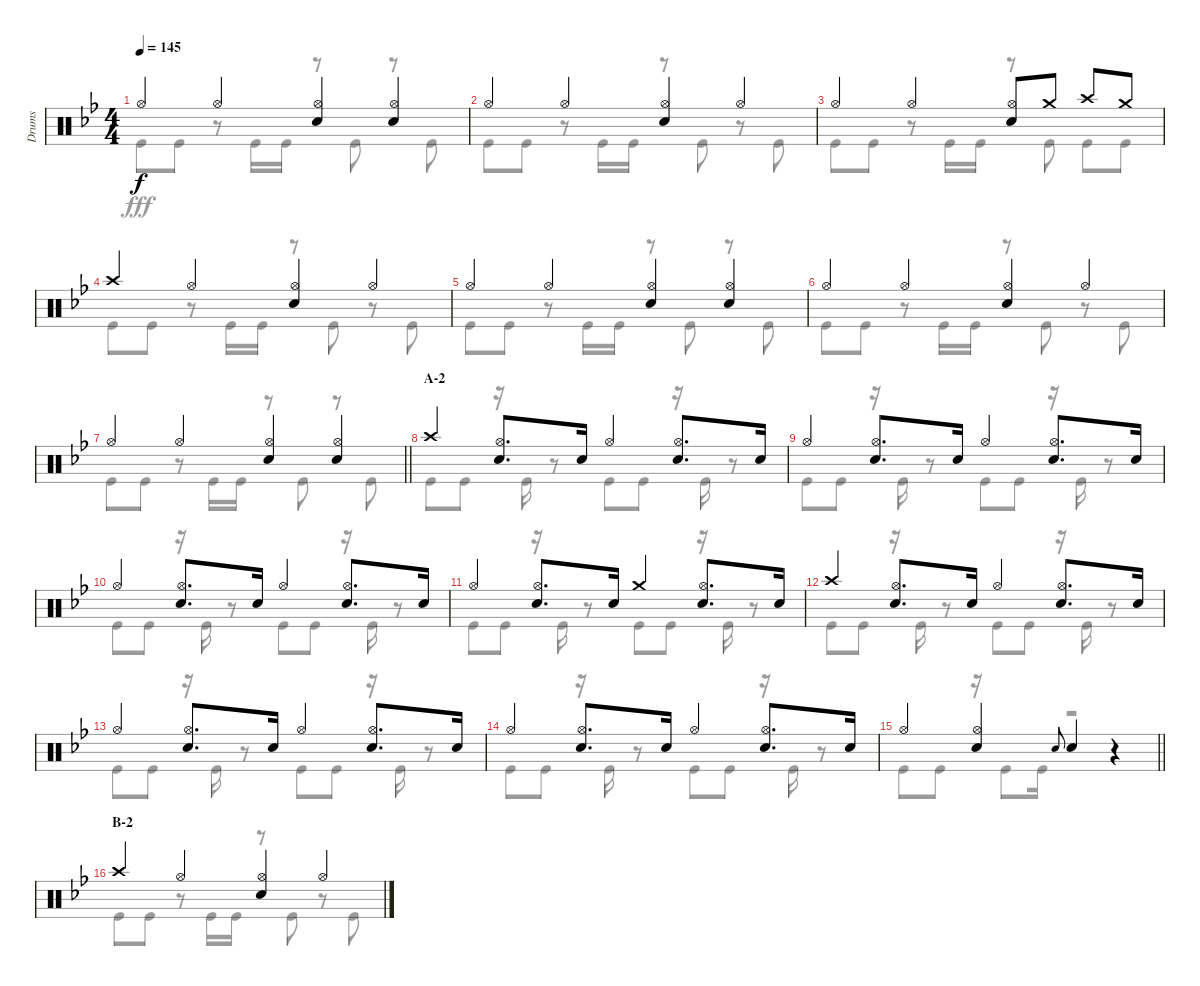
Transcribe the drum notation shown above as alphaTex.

\track ("Drums" "Drums") {instrument percussion}
\staff {score}
\articulation defaults
\voice
\ts (4 4)
\tempo 145
\clef neutral
\ks bb "Hi-Hat (open)".4{dy f} "Hi-Hat (open)".4
("Hi-Hat (open)" "Snare (hit) 2").4 ("Hi-Hat (open)" "Snare (hit) 2").4 |
"Hi-Hat (open)".4 "Hi-Hat (open)".4 ("Hi-Hat (open)" "Snare (hit) 2").4 "Hi-Hat (open)".4 |
"Hi-Hat (open)".4 "Hi-Hat (open)".4 ("Hi-Hat (open)" "Snare (hit) 2").8 "Crash medium (hit)".8 "Crash high (hit)".8 "Crash medium (hit)".8 |
"Crash high (hit)".4 "Hi-Hat (open)".4 ("Hi-Hat (open)" "Snare (hit) 2").4 "Hi-Hat (open)".4 |
"Hi-Hat (open)".4 "Hi-Hat (open)".4 ("Hi-Hat (open)" "Snare (hit) 2").4 ("Hi-Hat (open)" "Snare (hit) 2").4 |
"Hi-Hat (open)".4 "Hi-Hat (open)".4 ("Hi-Hat (open)" "Snare (hit) 2").4 "Hi-Hat (open)".4 |
\barLineRight lightlight "Hi-Hat (open)".4 "Hi-Hat (open)".4
("Hi-Hat (open)" "Snare (hit) 2").4 ("Hi-Hat (open)" "Snare (hit) 2").4 |
\section ("" "A-2")
"Crash high (hit)".4 ("Hi-Hat (open)" "Snare (hit) 2").8{d} "Snare (hit) 2".16 "Hi-Hat (open)".4 ("Hi-Hat (open)" "Snare (hit) 2").8{d} "Snare (hit) 2".16 |
"Hi-Hat (open)".4 ("Hi-Hat (open)" "Snare (hit) 2").8{d} "Snare (hit) 2".16 "Hi-Hat (open)".4 ("Hi-Hat (open)" "Snare (hit) 2").8{d} "Snare (hit) 2".16 |
"Hi-Hat (open)".4 ("Hi-Hat (open)" "Snare (hit) 2").8{d} "Snare (hit) 2".16 "Hi-Hat (open)".4 ("Hi-Hat (open)" "Snare (hit) 2").8{d} "Snare (hit) 2".16 |
"Hi-Hat (open)".4 ("Hi-Hat (open)" "Snare (hit) 2").8{d} "Snare (hit) 2".16 "Crash medium (hit)".4 ("Hi-Hat (open)" "Snare (hit) 2").8{d} "Snare (hit) 2".16 |
"Crash high (hit)".4 ("Hi-Hat (open)" "Snare (hit) 2").8{d} "Snare (hit) 2".16 "Hi-Hat (open)".4 ("Hi-Hat (open)" "Snare (hit) 2").8{d} "Snare (hit) 2".16 |
"Hi-Hat (open)".4 ("Hi-Hat (open)" "Snare (hit) 2").8{d} "Snare (hit) 2".16 "Hi-Hat (open)".4 ("Hi-Hat (open)" "Snare (hit) 2").8{d} "Snare (hit) 2".16 |
"Hi-Hat (open)".4 ("Hi-Hat (open)" "Snare (hit) 2").8{d} "Snare (hit) 2".16 "Hi-Hat (open)".4 ("Hi-Hat (open)" "Snare (hit) 2").8{d} "Snare (hit) 2".16 |
\barLineRight lightlight "Hi-Hat (open)".4
("Hi-Hat (open)" "Snare (hit) 2").4 "Snare (hit) 2".8{gr onbeat} "Snare (hit) 2".4 r.4 |
\section ("" "B-2")
"Crash high (hit)".4 "Hi-Hat (open)".4 ("Hi-Hat (open)" "Snare (hit) 2").4 "Hi-Hat (open)".4
\voice
\clef neutral
\ottava regular
\simile none
\ks bb "Kick (hit)".8{dy fff} "Kick (hit)".8
r.8 "Kick (hit)".16 "Kick (hit)".16 r.8 "Kick (hit)".8 r.8 "Kick (hit)".8 |
"Kick (hit)".8 "Kick (hit)".8 r.8 "Kick (hit)".16 "Kick (hit)".16 r.8 "Kick (hit)".8 r.8 "Kick (hit)".8 |
"Kick (hit)".8 "Kick (hit)".8 r.8 "Kick (hit)".16 "Kick (hit)".16 r.8 "Kick (hit)".8 "Kick (hit)".8 "Kick (hit)".8 |
"Kick (hit)".8 "Kick (hit)".8 r.8 "Kick (hit)".16 "Kick (hit)".16 r.8 "Kick (hit)".8 r.8 "Kick (hit)".8 |
"Kick (hit)".8 "Kick (hit)".8 r.8 "Kick (hit)".16 "Kick (hit)".16 r.8 "Kick (hit)".8 r.8 "Kick (hit)".8 |
"Kick (hit)".8 "Kick (hit)".8 r.8 "Kick (hit)".16 "Kick (hit)".16 r.8 "Kick (hit)".8 r.8 "Kick (hit)".8 |
\barLineRight lightlight "Kick (hit)".8 "Kick (hit)".8
r.8 "Kick (hit)".16 "Kick (hit)".16 r.8 "Kick (hit)".8 r.8 "Kick (hit)".8 |
"Kick (hit)".8 "Kick (hit)".8 r.16 "Kick (hit)".16 r.8 "Kick (hit)".8 "Kick (hit)".8 r.16 "Kick (hit)".16 r.8 |
"Kick (hit)".8 "Kick (hit)".8 r.16 "Kick (hit)".16 r.8 "Kick (hit)".8 "Kick (hit)".8 r.16 "Kick (hit)".16 r.8 |
"Kick (hit)".8 "Kick (hit)".8 r.16 "Kick (hit)".16 r.8 "Kick (hit)".8 "Kick (hit)".8 r.16 "Kick (hit)".16 r.8 |
"Kick (hit)".8 "Kick (hit)".8 r.16 "Kick (hit)".16 r.8 "Kick (hit)".8 "Kick (hit)".8 r.16 "Kick (hit)".16 r.8 |
"Kick (hit)".8 "Kick (hit)".8 r.16 "Kick (hit)".16 r.8 "Kick (hit)".8 "Kick (hit)".8 r.16 "Kick (hit)".16 r.8 |
"Kick (hit)".8 "Kick (hit)".8 r.16 "Kick (hit)".16 r.8 "Kick (hit)".8 "Kick (hit)".8 r.16 "Kick (hit)".16 r.8 |
"Kick (hit)".8 "Kick (hit)".8 r.16 "Kick (hit)".16 r.8 "Kick (hit)".8 "Kick (hit)".8 r.16 "Kick (hit)".16 r.8 |
\barLineRight lightlight "Kick (hit)".8 "Kick (hit)".8
r.16 "Kick (hit)".8 "Kick (hit)".16 r.2 |
"Kick (hit)".8 "Kick (hit)".8 r.8 "Kick (hit)".16 "Kick (hit)".16 r.8 "Kick (hit)".8 r.8 "Kick (hit)".8
